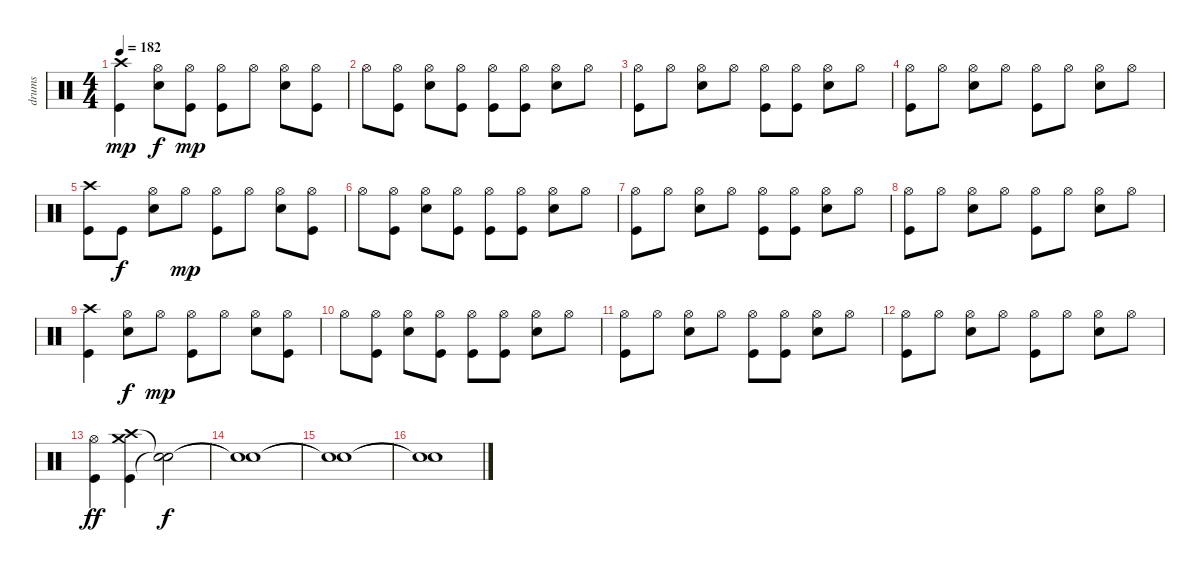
\track ("drums" "drums") {instrument percussion}
\staff {score}
\articulation defaults
\ts (4 4)
\tempo 182
\clef neutral
\ks c
("Kick (hit)" "Crash high (hit)").4{dy mp} ("Snare (hit) 2" "Hi-Hat (open)").8{dy f} ("Kick (hit)" "Hi-Hat (open)").8{dy mp} ("Kick (hit)" "Hi-Hat (open)").8 "Hi-Hat (open)".8 ("Snare (hit) 2" "Hi-Hat (open)").8 ("Kick (hit)" "Hi-Hat (open)").8 |
"Hi-Hat (open)".8 ("Kick (hit)" "Hi-Hat (open)").8 ("Snare (hit) 2" "Hi-Hat (open)").8 ("Kick (hit)" "Hi-Hat (open)").8 ("Kick (hit)" "Hi-Hat (open)").8 ("Kick (hit)" "Hi-Hat (open)").8 ("Snare (hit) 2" "Hi-Hat (open)").8 "Hi-Hat (open)".8 |
("Kick (hit)" "Hi-Hat (open)").8 "Hi-Hat (open)".8 ("Snare (hit) 2" "Hi-Hat (open)").8 "Hi-Hat (open)".8 ("Kick (hit)" "Hi-Hat (open)").8 ("Kick (hit)" "Hi-Hat (open)").8 ("Snare (hit) 2" "Hi-Hat (open)").8 "Hi-Hat (open)".8 |
("Kick (hit)" "Hi-Hat (open)").8 "Hi-Hat (open)".8 ("Snare (hit) 2" "Hi-Hat (open)").8 "Hi-Hat (open)".8 ("Kick (hit)" "Hi-Hat (open)").8 "Hi-Hat (open)".8 ("Snare (hit) 2" "Hi-Hat (open)").8 "Hi-Hat (open)".8 |
("Kick (hit)" "Crash high (hit)").8 "Kick (hit)".8{dy f} ("Snare (hit) 2" "Hi-Hat (open)").8 "Hi-Hat (open)".8{dy mp} ("Kick (hit)" "Hi-Hat (open)").8 "Hi-Hat (open)".8 ("Snare (hit) 2" "Hi-Hat (open)").8 ("Kick (hit)" "Hi-Hat (open)").8 |
"Hi-Hat (open)".8 ("Kick (hit)" "Hi-Hat (open)").8 ("Snare (hit) 2" "Hi-Hat (open)").8 ("Kick (hit)" "Hi-Hat (open)").8 ("Kick (hit)" "Hi-Hat (open)").8 ("Kick (hit)" "Hi-Hat (open)").8 ("Snare (hit) 2" "Hi-Hat (open)").8 "Hi-Hat (open)".8 |
("Kick (hit)" "Hi-Hat (open)").8 "Hi-Hat (open)".8 ("Snare (hit) 2" "Hi-Hat (open)").8 "Hi-Hat (open)".8 ("Kick (hit)" "Hi-Hat (open)").8 ("Kick (hit)" "Hi-Hat (open)").8 ("Snare (hit) 2" "Hi-Hat (open)").8 "Hi-Hat (open)".8 |
("Kick (hit)" "Hi-Hat (open)").8 "Hi-Hat (open)".8 ("Snare (hit) 2" "Hi-Hat (open)").8 "Hi-Hat (open)".8 ("Kick (hit)" "Hi-Hat (open)").8 "Hi-Hat (open)".8 ("Snare (hit) 2" "Hi-Hat (open)").8 "Hi-Hat (open)".8 |
("Kick (hit)" "Crash high (hit)").4 ("Snare (hit) 2" "Hi-Hat (open)").8{dy f} "Hi-Hat (open)".8{dy mp} ("Kick (hit)" "Hi-Hat (open)").8 "Hi-Hat (open)".8 ("Snare (hit) 2" "Hi-Hat (open)").8 ("Kick (hit)" "Hi-Hat (open)").8 |
"Hi-Hat (open)".8 ("Kick (hit)" "Hi-Hat (open)").8 ("Snare (hit) 2" "Hi-Hat (open)").8 ("Kick (hit)" "Hi-Hat (open)").8 ("Kick (hit)" "Hi-Hat (open)").8 ("Kick (hit)" "Hi-Hat (open)").8 ("Snare (hit) 2" "Hi-Hat (open)").8 "Hi-Hat (open)".8 |
("Kick (hit)" "Hi-Hat (open)").8 "Hi-Hat (open)".8 ("Snare (hit) 2" "Hi-Hat (open)").8 "Hi-Hat (open)".8 ("Kick (hit)" "Hi-Hat (open)").8 ("Kick (hit)" "Hi-Hat (open)").8 ("Snare (hit) 2" "Hi-Hat (open)").8 "Hi-Hat (open)".8 |
("Kick (hit)" "Hi-Hat (open)").8 "Hi-Hat (open)".8 ("Snare (hit) 2" "Hi-Hat (open)").8 "Hi-Hat (open)".8 ("Kick (hit)" "Hi-Hat (open)").8 "Hi-Hat (open)".8 ("Snare (hit) 2" "Hi-Hat (open)").8 "Hi-Hat (open)".8 |
("Kick (hit)" "Hi-Hat (open)").4{dy ff} ("Kick (hit)" "Crash high (hit)" "Crash medium (hit)").4 ("Snare (hit)"{t} "Snare (hit)"{t}).2{dy f} |
("Snare (hit)"{t} "Snare (hit)"{t}).1 |
("Snare (hit)"{t} "Snare (hit)"{t}).1 |
("Snare (hit)"{t} "Snare (hit)"{t}).1
